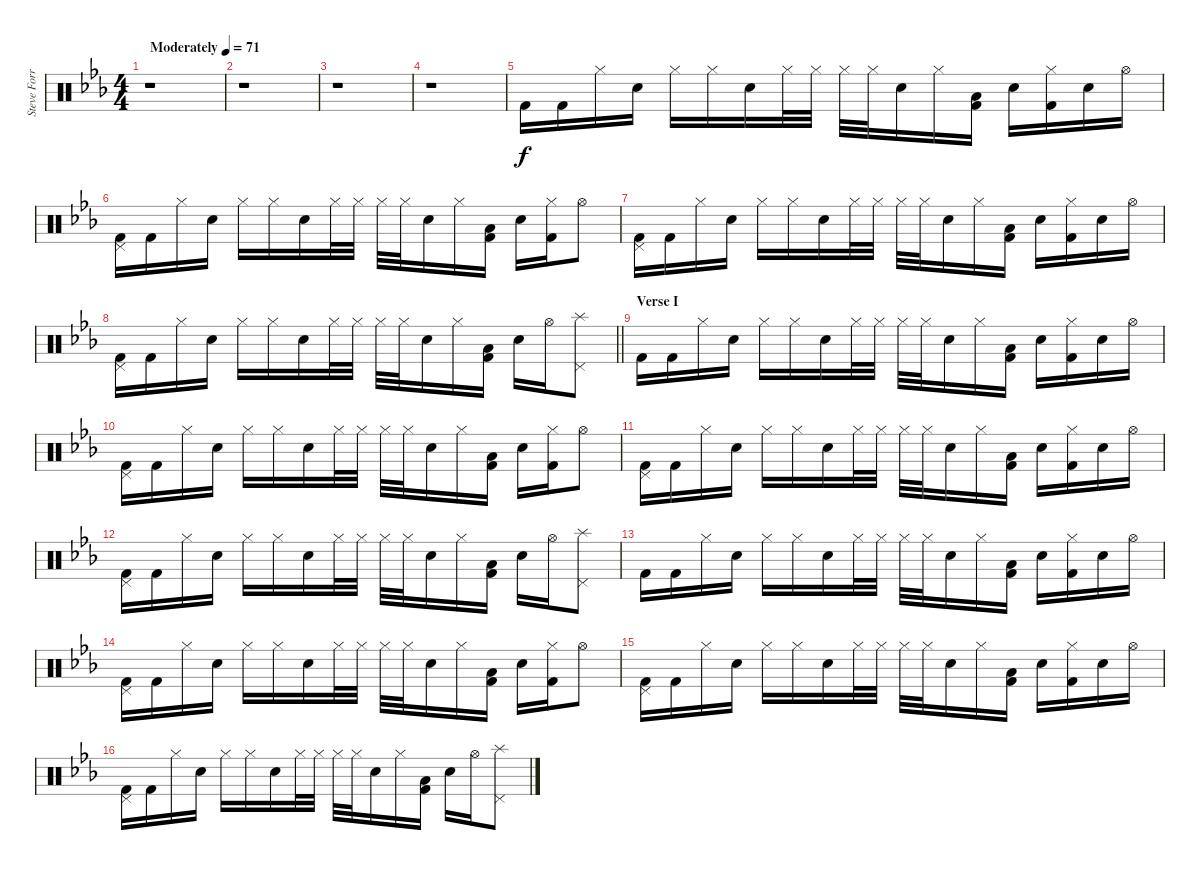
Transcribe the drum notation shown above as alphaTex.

\track ("Steve Forrest [Drums]" "Steve Forr") {instrument percussion}
\staff {score}
\articulation defaults
\ts (4 4)
\tempo (71 "Moderately")
\clef neutral
\ks cminor
r.1{dy f} |
r.1 |
r.1 |
r.1 |
"Kick (hit) 2".16 "Kick (hit) 2".16 "Hi-Hat (closed)".16 "Electric Snare (hit)".16 "Hi-Hat (closed)".16 "Hi-Hat (closed)".16 "Electric Snare (hit)".16 "Hi-Hat (closed)".32 "Hi-Hat (closed)".32 "Hi-Hat (closed)".32 "Hi-Hat (closed)".32 "Electric Snare (hit)".16 "Hi-Hat (closed)".16 ("Low Tom (hit)" "Kick (hit) 2").16 "Electric Snare (hit)".16 ("Hi-Hat (closed)" "Kick (hit) 2").16 "Electric Snare (hit)".16 "Hi-Hat (open)".16 |
("Pedal Hi-Hat (hit)" "Kick (hit) 2").16 "Kick (hit) 2".16 "Hi-Hat (closed)".16 "Electric Snare (hit)".16 "Hi-Hat (closed)".16 "Hi-Hat (closed)".16 "Electric Snare (hit)".16 "Hi-Hat (closed)".32 "Hi-Hat (closed)".32 "Hi-Hat (closed)".32 "Hi-Hat (closed)".32 "Electric Snare (hit)".16 "Hi-Hat (closed)".16 ("Low Tom (hit)" "Kick (hit) 2").16 "Electric Snare (hit)".16 ("Hi-Hat (closed)" "Kick (hit) 2").16 "Hi-Hat (open)".8 |
("Pedal Hi-Hat (hit)" "Kick (hit) 2").16 "Kick (hit) 2".16 "Hi-Hat (closed)".16 "Electric Snare (hit)".16 "Hi-Hat (closed)".16 "Hi-Hat (closed)".16 "Electric Snare (hit)".16 "Hi-Hat (closed)".32 "Hi-Hat (closed)".32 "Hi-Hat (closed)".32 "Hi-Hat (closed)".32 "Electric Snare (hit)".16 "Hi-Hat (closed)".16 ("Low Tom (hit)" "Kick (hit) 2").16 "Electric Snare (hit)".16 ("Hi-Hat (closed)" "Kick (hit) 2").16 "Electric Snare (hit)".16 "Hi-Hat (open)".16 |
\barLineRight lightlight
("Pedal Hi-Hat (hit)" "Kick (hit) 2").16 "Kick (hit) 2".16 "Hi-Hat (closed)".16 "Electric Snare (hit)".16 "Hi-Hat (closed)".16 "Hi-Hat (closed)".16 "Electric Snare (hit)".16 "Hi-Hat (closed)".32 "Hi-Hat (closed)".32 "Hi-Hat (closed)".32 "Hi-Hat (closed)".32 "Electric Snare (hit)".16 "Hi-Hat (closed)".16 ("Low Tom (hit)" "Kick (hit) 2").16 "Electric Snare (hit)".16 "Hi-Hat (open)".16 ("Pedal Hi-Hat (hit)" "Splash (hit)").8 |
\section ("" "Verse I")
"Kick (hit) 2".16 "Kick (hit) 2".16 "Hi-Hat (closed)".16 "Electric Snare (hit)".16 "Hi-Hat (closed)".16 "Hi-Hat (closed)".16 "Electric Snare (hit)".16 "Hi-Hat (closed)".32 "Hi-Hat (closed)".32 "Hi-Hat (closed)".32 "Hi-Hat (closed)".32 "Electric Snare (hit)".16 "Hi-Hat (closed)".16 ("Low Tom (hit)" "Kick (hit) 2").16 "Electric Snare (hit)".16 ("Hi-Hat (closed)" "Kick (hit) 2").16 "Electric Snare (hit)".16 "Hi-Hat (open)".16 |
("Pedal Hi-Hat (hit)" "Kick (hit) 2").16 "Kick (hit) 2".16 "Hi-Hat (closed)".16 "Electric Snare (hit)".16 "Hi-Hat (closed)".16 "Hi-Hat (closed)".16 "Electric Snare (hit)".16 "Hi-Hat (closed)".32 "Hi-Hat (closed)".32 "Hi-Hat (closed)".32 "Hi-Hat (closed)".32 "Electric Snare (hit)".16 "Hi-Hat (closed)".16 ("Low Tom (hit)" "Kick (hit) 2").16 "Electric Snare (hit)".16 ("Hi-Hat (closed)" "Kick (hit) 2").16 "Hi-Hat (open)".8 |
("Pedal Hi-Hat (hit)" "Kick (hit) 2").16 "Kick (hit) 2".16 "Hi-Hat (closed)".16 "Electric Snare (hit)".16 "Hi-Hat (closed)".16 "Hi-Hat (closed)".16 "Electric Snare (hit)".16 "Hi-Hat (closed)".32 "Hi-Hat (closed)".32 "Hi-Hat (closed)".32 "Hi-Hat (closed)".32 "Electric Snare (hit)".16 "Hi-Hat (closed)".16 ("Low Tom (hit)" "Kick (hit) 2").16 "Electric Snare (hit)".16 ("Hi-Hat (closed)" "Kick (hit) 2").16 "Electric Snare (hit)".16 "Hi-Hat (open)".16 |
("Pedal Hi-Hat (hit)" "Kick (hit) 2").16 "Kick (hit) 2".16 "Hi-Hat (closed)".16 "Electric Snare (hit)".16 "Hi-Hat (closed)".16 "Hi-Hat (closed)".16 "Electric Snare (hit)".16 "Hi-Hat (closed)".32 "Hi-Hat (closed)".32 "Hi-Hat (closed)".32 "Hi-Hat (closed)".32 "Electric Snare (hit)".16 "Hi-Hat (closed)".16 ("Low Tom (hit)" "Kick (hit) 2").16 "Electric Snare (hit)".16 "Hi-Hat (open)".16 ("Pedal Hi-Hat (hit)" "Splash (hit)").8 |
"Kick (hit) 2".16 "Kick (hit) 2".16 "Hi-Hat (closed)".16 "Electric Snare (hit)".16 "Hi-Hat (closed)".16 "Hi-Hat (closed)".16 "Electric Snare (hit)".16 "Hi-Hat (closed)".32 "Hi-Hat (closed)".32 "Hi-Hat (closed)".32 "Hi-Hat (closed)".32 "Electric Snare (hit)".16 "Hi-Hat (closed)".16 ("Low Tom (hit)" "Kick (hit) 2").16 "Electric Snare (hit)".16 ("Hi-Hat (closed)" "Kick (hit) 2").16 "Electric Snare (hit)".16 "Hi-Hat (open)".16 |
("Pedal Hi-Hat (hit)" "Kick (hit) 2").16 "Kick (hit) 2".16 "Hi-Hat (closed)".16 "Electric Snare (hit)".16 "Hi-Hat (closed)".16 "Hi-Hat (closed)".16 "Electric Snare (hit)".16 "Hi-Hat (closed)".32 "Hi-Hat (closed)".32 "Hi-Hat (closed)".32 "Hi-Hat (closed)".32 "Electric Snare (hit)".16 "Hi-Hat (closed)".16 ("Low Tom (hit)" "Kick (hit) 2").16 "Electric Snare (hit)".16 ("Hi-Hat (closed)" "Kick (hit) 2").16 "Hi-Hat (open)".8 |
("Pedal Hi-Hat (hit)" "Kick (hit) 2").16 "Kick (hit) 2".16 "Hi-Hat (closed)".16 "Electric Snare (hit)".16 "Hi-Hat (closed)".16 "Hi-Hat (closed)".16 "Electric Snare (hit)".16 "Hi-Hat (closed)".32 "Hi-Hat (closed)".32 "Hi-Hat (closed)".32 "Hi-Hat (closed)".32 "Electric Snare (hit)".16 "Hi-Hat (closed)".16 ("Low Tom (hit)" "Kick (hit) 2").16 "Electric Snare (hit)".16 ("Hi-Hat (closed)" "Kick (hit) 2").16 "Electric Snare (hit)".16 "Hi-Hat (open)".16 |
("Pedal Hi-Hat (hit)" "Kick (hit) 2").16 "Kick (hit) 2".16 "Hi-Hat (closed)".16 "Electric Snare (hit)".16 "Hi-Hat (closed)".16 "Hi-Hat (closed)".16 "Electric Snare (hit)".16 "Hi-Hat (closed)".32 "Hi-Hat (closed)".32 "Hi-Hat (closed)".32 "Hi-Hat (closed)".32 "Electric Snare (hit)".16 "Hi-Hat (closed)".16 ("Low Tom (hit)" "Kick (hit) 2").16 "Electric Snare (hit)".16 "Hi-Hat (open)".16 ("Pedal Hi-Hat (hit)" "Splash (hit)").8
